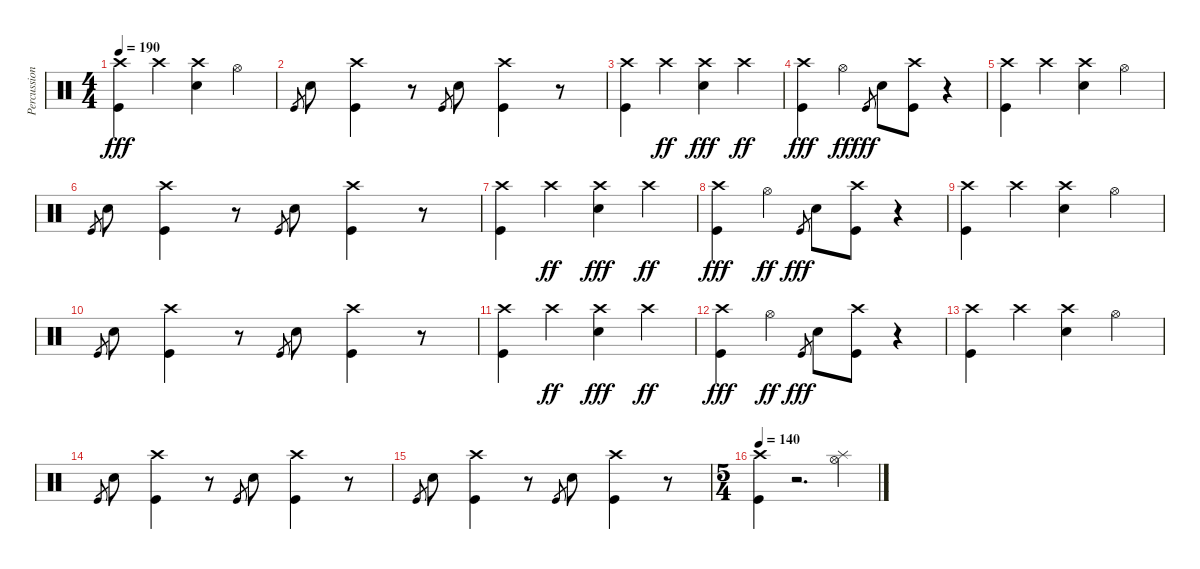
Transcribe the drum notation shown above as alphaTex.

\track ("Percussion" "Percussion") {instrument percussion}
\staff {score}
\articulation defaults
\ts (4 4)
\tempo 190
\clef neutral
\ks c
("Crash high (hit)" "Kick (hit)").4{dy fff} "Crash high (hit)".4 ("Crash high (hit)" "Electric Snare (hit)").4 "Hi-Hat (open)".4 |
"Kick (hit)".8{gr} "Electric Snare (hit)".8 ("Crash high (hit)" "Kick (hit)").4 r.8 "Kick (hit)".8{gr} "Electric Snare (hit)".8 ("Crash high (hit)" "Kick (hit)").4 r.8 |
("Crash high (hit)" "Kick (hit)").4 "Crash high (hit)".4{dy ff} ("Crash high (hit)" "Electric Snare (hit)").4{dy fff} "Crash high (hit)".4{dy ff} |
("Crash high (hit)" "Kick (hit)").4{dy fff} "Hi-Hat (open)".4{dy ff} "Kick (hit)".8{gr dy fff} "Electric Snare (hit)".8 ("Crash high (hit)" "Kick (hit)").8 r.4 |
("Crash high (hit)" "Kick (hit)").4 "Crash high (hit)".4 ("Crash high (hit)" "Electric Snare (hit)").4 "Hi-Hat (open)".4 |
"Kick (hit)".8{gr} "Electric Snare (hit)".8 ("Crash high (hit)" "Kick (hit)").4 r.8 "Kick (hit)".8{gr} "Electric Snare (hit)".8 ("Crash high (hit)" "Kick (hit)").4 r.8 |
("Crash high (hit)" "Kick (hit)").4 "Crash high (hit)".4{dy ff} ("Crash high (hit)" "Electric Snare (hit)").4{dy fff} "Crash high (hit)".4{dy ff} |
("Crash high (hit)" "Kick (hit)").4{dy fff} "Hi-Hat (open)".4{dy ff} "Kick (hit)".8{gr dy fff} "Electric Snare (hit)".8 ("Crash high (hit)" "Kick (hit)").8 r.4 |
("Crash high (hit)" "Kick (hit)").4 "Crash high (hit)".4 ("Crash high (hit)" "Electric Snare (hit)").4 "Hi-Hat (open)".4 |
"Kick (hit)".8{gr} "Electric Snare (hit)".8 ("Crash high (hit)" "Kick (hit)").4 r.8 "Kick (hit)".8{gr} "Electric Snare (hit)".8 ("Crash high (hit)" "Kick (hit)").4 r.8 |
("Crash high (hit)" "Kick (hit)").4 "Crash high (hit)".4{dy ff} ("Crash high (hit)" "Electric Snare (hit)").4{dy fff} "Crash high (hit)".4{dy ff} |
("Crash high (hit)" "Kick (hit)").4{dy fff} "Hi-Hat (open)".4{dy ff} "Kick (hit)".8{gr dy fff} "Electric Snare (hit)".8 ("Crash high (hit)" "Kick (hit)").8 r.4 |
("Crash high (hit)" "Kick (hit)").4 "Crash high (hit)".4 ("Crash high (hit)" "Electric Snare (hit)").4 "Hi-Hat (open)".4 |
"Kick (hit)".8{gr} "Electric Snare (hit)".8 ("Crash high (hit)" "Kick (hit)").4 r.8 "Kick (hit)".8{gr} "Electric Snare (hit)".8 ("Crash high (hit)" "Kick (hit)").4 r.8 |
"Kick (hit)".8{gr} "Electric Snare (hit)".8 ("Crash high (hit)" "Kick (hit)").4 r.8 "Kick (hit)".8{gr} "Electric Snare (hit)".8 ("Crash high (hit)" "Kick (hit)").4 r.8 |
\ts (5 4)
\tempo 140
("Crash high (hit)" "Kick (hit)").4 r.2{d} ("Splash (hit)" "Hi-Hat (open)").4
